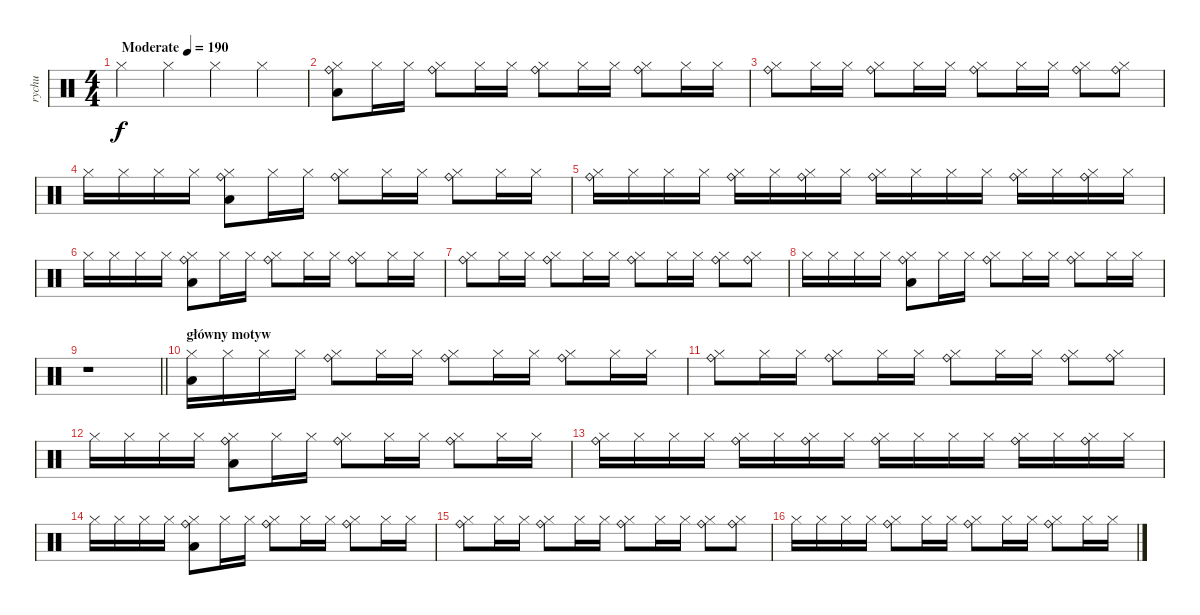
\track ("rychu" "rychu") {instrument percussion}
\staff {score}
\articulation defaults
\ts (4 4)
\tempo (190 "Moderate")
\clef neutral
\ks c "Hi-Hat (closed)".4{dy f} "Hi-Hat (closed)".4 "Hi-Hat (closed)".4 "Hi-Hat (closed)".4
|
("Low Tom (hit)" "Ride (bell)" "Hi-Hat (closed)").8 "Hi-Hat (closed)".16 "Hi-Hat (closed)".16 ("Ride (bell)" "Hi-Hat (closed)").8 "Hi-Hat (closed)".16 "Hi-Hat (closed)".16 ("Ride (bell)" "Hi-Hat (closed)").8 "Hi-Hat (closed)".16 "Hi-Hat (closed)".16 ("Ride (bell)" "Hi-Hat (closed)").8 "Hi-Hat (closed)".16 "Hi-Hat (closed)".16 |
("Ride (bell)" "Hi-Hat (closed)").8 "Hi-Hat (closed)".16 "Hi-Hat (closed)".16 ("Ride (bell)" "Hi-Hat (closed)").8 "Hi-Hat (closed)".16 "Hi-Hat (closed)".16 ("Ride (bell)" "Hi-Hat (closed)").8 "Hi-Hat (closed)".16 "Hi-Hat (closed)".16 ("Ride (bell)" "Hi-Hat (closed)").8 ("Ride (bell)" "Hi-Hat (closed)").8 |
"Hi-Hat (closed)".16 "Hi-Hat (closed)".16 "Hi-Hat (closed)".16 "Hi-Hat (closed)".16 ("Low Tom (hit)" "Ride (bell)" "Hi-Hat (closed)").8 "Hi-Hat (closed)".16 "Hi-Hat (closed)".16 ("Ride (bell)" "Hi-Hat (closed)").8 "Hi-Hat (closed)".16 "Hi-Hat (closed)".16 ("Ride (bell)" "Hi-Hat (closed)").8 "Hi-Hat (closed)".16 "Hi-Hat (closed)".16 |
("Ride (bell)" "Hi-Hat (closed)").16 "Hi-Hat (closed)".16 "Hi-Hat (closed)".16 "Hi-Hat (closed)".16 ("Ride (bell)" "Hi-Hat (closed)").16 "Hi-Hat (closed)".16 ("Ride (bell)" "Hi-Hat (closed)").16 "Hi-Hat (closed)".16 ("Ride (bell)" "Hi-Hat (closed)").16 "Hi-Hat (closed)".16 "Hi-Hat (closed)".16 "Hi-Hat (closed)".16 ("Ride (bell)" "Hi-Hat (closed)").16 "Hi-Hat (closed)".16 ("Ride (bell)" "Hi-Hat (closed)").16 "Hi-Hat (closed)".16 |
"Hi-Hat (closed)".16 "Hi-Hat (closed)".16 "Hi-Hat (closed)".16 "Hi-Hat (closed)".16 ("Low Tom (hit)" "Ride (bell)" "Hi-Hat (closed)").8 "Hi-Hat (closed)".16 "Hi-Hat (closed)".16 ("Ride (bell)" "Hi-Hat (closed)").8 "Hi-Hat (closed)".16 "Hi-Hat (closed)".16 ("Ride (bell)" "Hi-Hat (closed)").8 "Hi-Hat (closed)".16 "Hi-Hat (closed)".16 |
("Ride (bell)" "Hi-Hat (closed)").8 "Hi-Hat (closed)".16 "Hi-Hat (closed)".16 ("Ride (bell)" "Hi-Hat (closed)").8 "Hi-Hat (closed)".16 "Hi-Hat (closed)".16 ("Ride (bell)" "Hi-Hat (closed)").8 "Hi-Hat (closed)".16 "Hi-Hat (closed)".16 ("Ride (bell)" "Hi-Hat (closed)").8 ("Ride (bell)" "Hi-Hat (closed)").8 |
"Hi-Hat (closed)".16 "Hi-Hat (closed)".16 "Hi-Hat (closed)".16 "Hi-Hat (closed)".16 ("Low Tom (hit)" "Ride (bell)" "Hi-Hat (closed)").8 "Hi-Hat (closed)".16 "Hi-Hat (closed)".16 ("Ride (bell)" "Hi-Hat (closed)").8 "Hi-Hat (closed)".16 "Hi-Hat (closed)".16 ("Ride (bell)" "Hi-Hat (closed)").8 "Hi-Hat (closed)".16 "Hi-Hat (closed)".16 |
\barLineRight lightlight
r.1 |
\section ("" "główny motyw")
("Low Tom (hit)" "Hi-Hat (closed)").16 "Hi-Hat (closed)".16 "Hi-Hat (closed)".16 "Hi-Hat (closed)".16 ("Ride (bell)" "Hi-Hat (closed)").8 "Hi-Hat (closed)".16 "Hi-Hat (closed)".16 ("Ride (bell)" "Hi-Hat (closed)").8 "Hi-Hat (closed)".16 "Hi-Hat (closed)".16 ("Ride (bell)" "Hi-Hat (closed)").8 "Hi-Hat (closed)".16 "Hi-Hat (closed)".16 |
("Ride (bell)" "Hi-Hat (closed)").8 "Hi-Hat (closed)".16 "Hi-Hat (closed)".16 ("Ride (bell)" "Hi-Hat (closed)").8 "Hi-Hat (closed)".16 "Hi-Hat (closed)".16 ("Ride (bell)" "Hi-Hat (closed)").8 "Hi-Hat (closed)".16 "Hi-Hat (closed)".16 ("Ride (bell)" "Hi-Hat (closed)").8 ("Ride (bell)" "Hi-Hat (closed)").8 |
"Hi-Hat (closed)".16 "Hi-Hat (closed)".16 "Hi-Hat (closed)".16 "Hi-Hat (closed)".16 ("Low Tom (hit)" "Ride (bell)" "Hi-Hat (closed)").8 "Hi-Hat (closed)".16 "Hi-Hat (closed)".16 ("Ride (bell)" "Hi-Hat (closed)").8 "Hi-Hat (closed)".16 "Hi-Hat (closed)".16 ("Ride (bell)" "Hi-Hat (closed)").8 "Hi-Hat (closed)".16 "Hi-Hat (closed)".16 |
("Ride (bell)" "Hi-Hat (closed)").16 "Hi-Hat (closed)".16 "Hi-Hat (closed)".16 "Hi-Hat (closed)".16 ("Ride (bell)" "Hi-Hat (closed)").16 "Hi-Hat (closed)".16 ("Ride (bell)" "Hi-Hat (closed)").16 "Hi-Hat (closed)".16 ("Ride (bell)" "Hi-Hat (closed)").16 "Hi-Hat (closed)".16 "Hi-Hat (closed)".16 "Hi-Hat (closed)".16 ("Ride (bell)" "Hi-Hat (closed)").16 "Hi-Hat (closed)".16 ("Ride (bell)" "Hi-Hat (closed)").16 "Hi-Hat (closed)".16 |
"Hi-Hat (closed)".16 "Hi-Hat (closed)".16 "Hi-Hat (closed)".16 "Hi-Hat (closed)".16 ("Low Tom (hit)" "Ride (bell)" "Hi-Hat (closed)").8 "Hi-Hat (closed)".16 "Hi-Hat (closed)".16 ("Ride (bell)" "Hi-Hat (closed)").8 "Hi-Hat (closed)".16 "Hi-Hat (closed)".16 ("Ride (bell)" "Hi-Hat (closed)").8 "Hi-Hat (closed)".16 "Hi-Hat (closed)".16 |
("Ride (bell)" "Hi-Hat (closed)").8 "Hi-Hat (closed)".16 "Hi-Hat (closed)".16 ("Ride (bell)" "Hi-Hat (closed)").8 "Hi-Hat (closed)".16 "Hi-Hat (closed)".16 ("Ride (bell)" "Hi-Hat (closed)").8 "Hi-Hat (closed)".16 "Hi-Hat (closed)".16 ("Ride (bell)" "Hi-Hat (closed)").8 ("Ride (bell)" "Hi-Hat (closed)").8 |
"Hi-Hat (closed)".16 "Hi-Hat (closed)".16 "Hi-Hat (closed)".16 "Hi-Hat (closed)".16 ("Ride (bell)" "Hi-Hat (closed)").8 "Hi-Hat (closed)".16 "Hi-Hat (closed)".16 ("Ride (bell)" "Hi-Hat (closed)").8 "Hi-Hat (closed)".16 "Hi-Hat (closed)".16 ("Ride (bell)" "Hi-Hat (closed)").8 "Hi-Hat (closed)".16 "Hi-Hat (closed)".16
